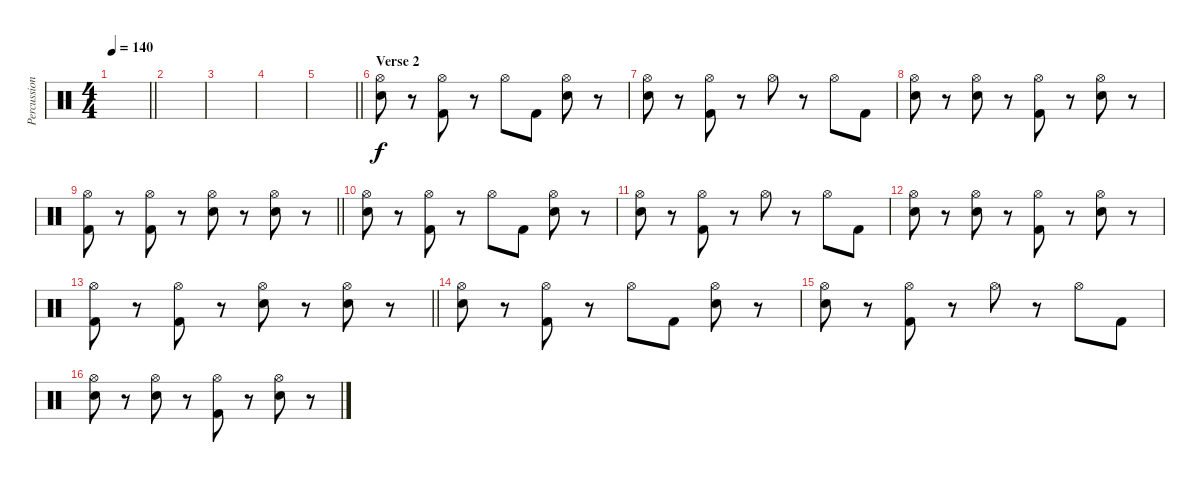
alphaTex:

\track ("Percussion" "Percussion") {instrument percussion}
\staff {score}
\articulation defaults
\ts (4 4)
\tempo 140
\clef neutral
\barLineRight lightlight
\ks c
|
|
|
|
\barLineRight lightlight
|
\section ("" "Verse 2")
("Hi-Hat (open)" "Snare (hit) 2").8 r.8 ("Hi-Hat (open)" "Kick (hit) 2").8 r.8 "Hi-Hat (open)".8 "Kick (hit) 2".8 ("Hi-Hat (open)" "Snare (hit) 2").8 r.8 |
("Hi-Hat (open)" "Snare (hit) 2").8 r.8 ("Hi-Hat (open)" "Kick (hit) 2").8 r.8 "Hi-Hat (open)".8 r.8 "Hi-Hat (open)".8 "Kick (hit) 2".8 |
("Hi-Hat (open)" "Snare (hit) 2").8 r.8 ("Hi-Hat (open)" "Snare (hit) 2").8 r.8 ("Hi-Hat (open)" "Kick (hit) 2").8 r.8 ("Hi-Hat (open)" "Snare (hit) 2").8 r.8 |
\barLineRight lightlight
("Hi-Hat (open)" "Kick (hit) 2").8 r.8 ("Hi-Hat (open)" "Kick (hit) 2").8 r.8 ("Hi-Hat (open)" "Snare (hit) 2").8 r.8 ("Hi-Hat (open)" "Snare (hit) 2").8 r.8 |
("Hi-Hat (open)" "Snare (hit) 2").8 r.8 ("Hi-Hat (open)" "Kick (hit) 2").8 r.8 "Hi-Hat (open)".8 "Kick (hit) 2".8 ("Hi-Hat (open)" "Snare (hit) 2").8 r.8 |
("Hi-Hat (open)" "Snare (hit) 2").8 r.8 ("Hi-Hat (open)" "Kick (hit) 2").8 r.8 "Hi-Hat (open)".8 r.8 "Hi-Hat (open)".8 "Kick (hit) 2".8 |
("Hi-Hat (open)" "Snare (hit) 2").8 r.8 ("Hi-Hat (open)" "Snare (hit) 2").8 r.8 ("Hi-Hat (open)" "Kick (hit) 2").8 r.8 ("Hi-Hat (open)" "Snare (hit) 2").8 r.8 |
\barLineRight lightlight
("Hi-Hat (open)" "Kick (hit) 2").8 r.8 ("Hi-Hat (open)" "Kick (hit) 2").8 r.8 ("Hi-Hat (open)" "Snare (hit) 2").8 r.8 ("Hi-Hat (open)" "Snare (hit) 2").8 r.8 |
("Hi-Hat (open)" "Snare (hit) 2").8 r.8 ("Hi-Hat (open)" "Kick (hit) 2").8 r.8 "Hi-Hat (open)".8 "Kick (hit) 2".8 ("Hi-Hat (open)" "Snare (hit) 2").8 r.8 |
("Hi-Hat (open)" "Snare (hit) 2").8 r.8 ("Hi-Hat (open)" "Kick (hit) 2").8 r.8 "Hi-Hat (open)".8 r.8 "Hi-Hat (open)".8 "Kick (hit) 2".8 |
("Hi-Hat (open)" "Snare (hit) 2").8 r.8 ("Hi-Hat (open)" "Snare (hit) 2").8 r.8 ("Hi-Hat (open)" "Kick (hit) 2").8 r.8 ("Hi-Hat (open)" "Snare (hit) 2").8 r.8
